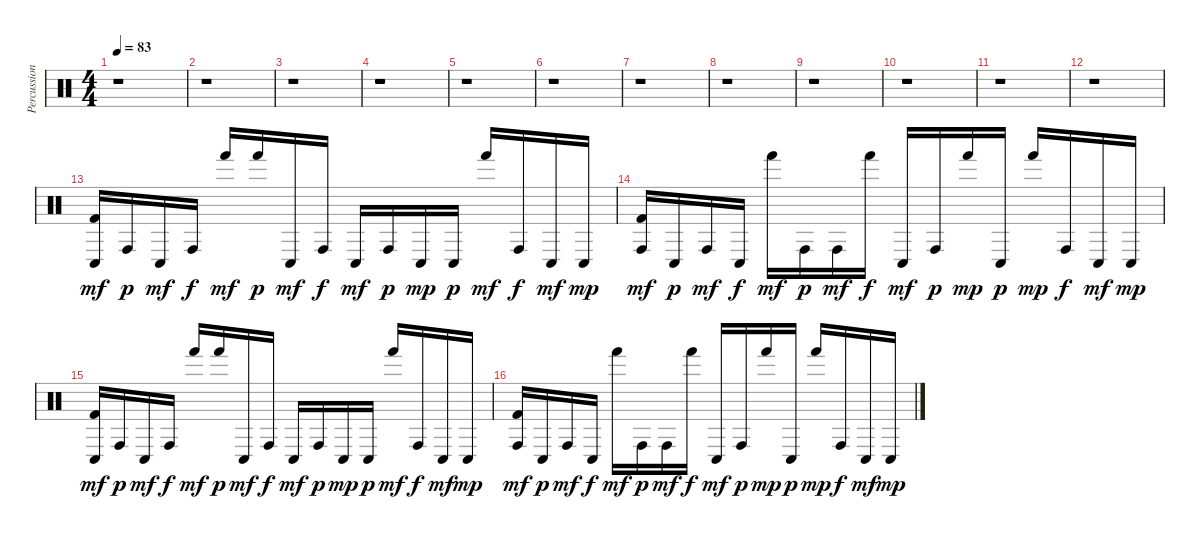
\track ("Percussion" "Percussion") {instrument percussion}
\staff {score}
\articulation defaults
\ts (4 4)
\tempo 83
\clef neutral
\ks c
r.1{dy mf} |
r.1 |
r.1 |
r.1 |
r.1 |
r.1 |
r.1 |
r.1 |
r.1 |
r.1 |
r.1 |
r.1 |
("Conga low (hit)" "Kick (hit) 2").16{volume 8} "Conga high (hit)".16{dy p} "Conga low (hit)".16{dy mf} "Conga high (hit)".16{dy f} "Hand (hit)".16{dy mf} "Hand (hit)".16{dy p} "Conga low (hit)".16{dy mf} "Conga high (hit)".16{dy f} "Conga low (hit)".16{dy mf} "Conga high (hit)".16{dy p} "Conga low (hit)".16{dy mp} "Conga low (hit)".16{dy p} "Hand (hit)".16{dy mf} "Conga high (hit)".16{dy f} "Conga low (hit)".16{dy mf} "Conga low (hit)".16{dy mp} |
("Conga high (hit)" "Kick (hit) 2").16{dy mf volume 8} "Conga low (hit)".16{dy p} "Conga high (hit)".16{dy mf} "Conga low (hit)".16{dy f} "Hand (hit)".16{dy mf} "Conga high (hit)".16{dy p} "Conga high (hit)".16{dy mf} "Hand (hit)".16{dy f} "Conga low (hit)".16{dy mf} "Conga high (hit)".16{dy p} "Hand (hit)".16{dy mp} "Conga low (hit)".16{dy p} "Hand (hit)".16{dy mp} "Conga high (hit)".16{dy f} "Conga low (hit)".16{dy mf} "Conga low (hit)".16{dy mp} |
("Conga low (hit)" "Kick (hit) 2").16{dy mf volume 8} "Conga high (hit)".16{dy p} "Conga low (hit)".16{dy mf} "Conga high (hit)".16{dy f} "Hand (hit)".16{dy mf} "Hand (hit)".16{dy p} "Conga low (hit)".16{dy mf} "Conga high (hit)".16{dy f} "Conga low (hit)".16{dy mf} "Conga high (hit)".16{dy p} "Conga low (hit)".16{dy mp} "Conga low (hit)".16{dy p} "Hand (hit)".16{dy mf} "Conga high (hit)".16{dy f} "Conga low (hit)".16{dy mf} "Conga low (hit)".16{dy mp} |
("Conga high (hit)" "Kick (hit) 2").16{dy mf volume 8} "Conga low (hit)".16{dy p} "Conga high (hit)".16{dy mf} "Conga low (hit)".16{dy f} "Hand (hit)".16{dy mf} "Conga high (hit)".16{dy p} "Conga high (hit)".16{dy mf} "Hand (hit)".16{dy f} "Conga low (hit)".16{dy mf} "Conga high (hit)".16{dy p} "Hand (hit)".16{dy mp} "Conga low (hit)".16{dy p} "Hand (hit)".16{dy mp} "Conga high (hit)".16{dy f} "Conga low (hit)".16{dy mf} "Conga low (hit)".16{dy mp}
